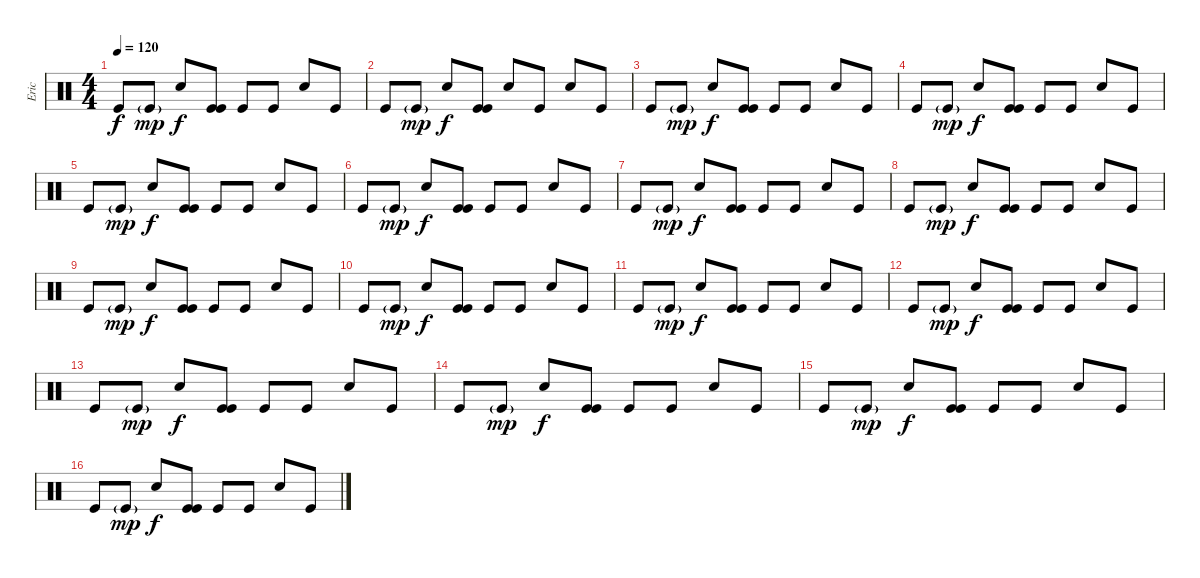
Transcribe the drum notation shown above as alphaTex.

\track ("Eric" "Eric") {instrument percussion}
\staff {score}
\articulation defaults
\ts (4 4)
\tempo 120
\clef neutral
\ks c "Kick (hit)".8{dy f} "Kick (hit)"{g}.8{dy mp} "Electric Snare (hit)".8{dy f}
("Kick (hit)" "Kick (hit)").8 "Kick (hit)".8 "Kick (hit)".8 "Electric Snare (hit)".8 "Kick (hit)".8 |
"Kick (hit)".8 "Kick (hit)"{g}.8{dy mp} "Electric Snare (hit)".8{dy f} ("Kick (hit)" "Kick (hit)").8 "Electric Snare (hit)".8 "Kick (hit)".8 "Electric Snare (hit)".8 "Kick (hit)".8 |
"Kick (hit)".8 "Kick (hit)"{g}.8{dy mp} "Electric Snare (hit)".8{dy f} ("Kick (hit)" "Kick (hit)").8 "Kick (hit)".8 "Kick (hit)".8 "Electric Snare (hit)".8 "Kick (hit)".8 |
"Kick (hit)".8 "Kick (hit)"{g}.8{dy mp} "Electric Snare (hit)".8{dy f} ("Kick (hit)" "Kick (hit)").8 "Kick (hit)".8 "Kick (hit)".8 "Electric Snare (hit)".8 "Kick (hit)".8 |
"Kick (hit)".8 "Kick (hit)"{g}.8{dy mp} "Electric Snare (hit)".8{dy f} ("Kick (hit)" "Kick (hit)").8 "Kick (hit)".8 "Kick (hit)".8 "Electric Snare (hit)".8 "Kick (hit)".8 |
"Kick (hit)".8 "Kick (hit)"{g}.8{dy mp} "Electric Snare (hit)".8{dy f} ("Kick (hit)" "Kick (hit)").8 "Kick (hit)".8 "Kick (hit)".8 "Electric Snare (hit)".8 "Kick (hit)".8 |
"Kick (hit)".8 "Kick (hit)"{g}.8{dy mp} "Electric Snare (hit)".8{dy f} ("Kick (hit)" "Kick (hit)").8 "Kick (hit)".8 "Kick (hit)".8 "Electric Snare (hit)".8 "Kick (hit)".8 |
"Kick (hit)".8 "Kick (hit)"{g}.8{dy mp} "Electric Snare (hit)".8{dy f} ("Kick (hit)" "Kick (hit)").8 "Kick (hit)".8 "Kick (hit)".8 "Electric Snare (hit)".8 "Kick (hit)".8 |
"Kick (hit)".8 "Kick (hit)"{g}.8{dy mp} "Electric Snare (hit)".8{dy f} ("Kick (hit)" "Kick (hit)").8 "Kick (hit)".8 "Kick (hit)".8 "Electric Snare (hit)".8 "Kick (hit)".8 |
"Kick (hit)".8 "Kick (hit)"{g}.8{dy mp} "Electric Snare (hit)".8{dy f} ("Kick (hit)" "Kick (hit)").8 "Kick (hit)".8 "Kick (hit)".8 "Electric Snare (hit)".8 "Kick (hit)".8 |
"Kick (hit)".8 "Kick (hit)"{g}.8{dy mp} "Electric Snare (hit)".8{dy f} ("Kick (hit)" "Kick (hit)").8 "Kick (hit)".8 "Kick (hit)".8 "Electric Snare (hit)".8 "Kick (hit)".8 |
"Kick (hit)".8 "Kick (hit)"{g}.8{dy mp} "Electric Snare (hit)".8{dy f} ("Kick (hit)" "Kick (hit)").8 "Kick (hit)".8 "Kick (hit)".8 "Electric Snare (hit)".8 "Kick (hit)".8 |
"Kick (hit)".8 "Kick (hit)"{g}.8{dy mp} "Electric Snare (hit)".8{dy f} ("Kick (hit)" "Kick (hit)").8 "Kick (hit)".8 "Kick (hit)".8 "Electric Snare (hit)".8 "Kick (hit)".8 |
"Kick (hit)".8 "Kick (hit)"{g}.8{dy mp} "Electric Snare (hit)".8{dy f} ("Kick (hit)" "Kick (hit)").8 "Kick (hit)".8 "Kick (hit)".8 "Electric Snare (hit)".8 "Kick (hit)".8 |
"Kick (hit)".8 "Kick (hit)"{g}.8{dy mp} "Electric Snare (hit)".8{dy f} ("Kick (hit)" "Kick (hit)").8 "Kick (hit)".8 "Kick (hit)".8 "Electric Snare (hit)".8 "Kick (hit)".8 |
"Kick (hit)".8 "Kick (hit)"{g}.8{dy mp} "Electric Snare (hit)".8{dy f} ("Kick (hit)" "Kick (hit)").8 "Kick (hit)".8 "Kick (hit)".8 "Electric Snare (hit)".8 "Kick (hit)".8
